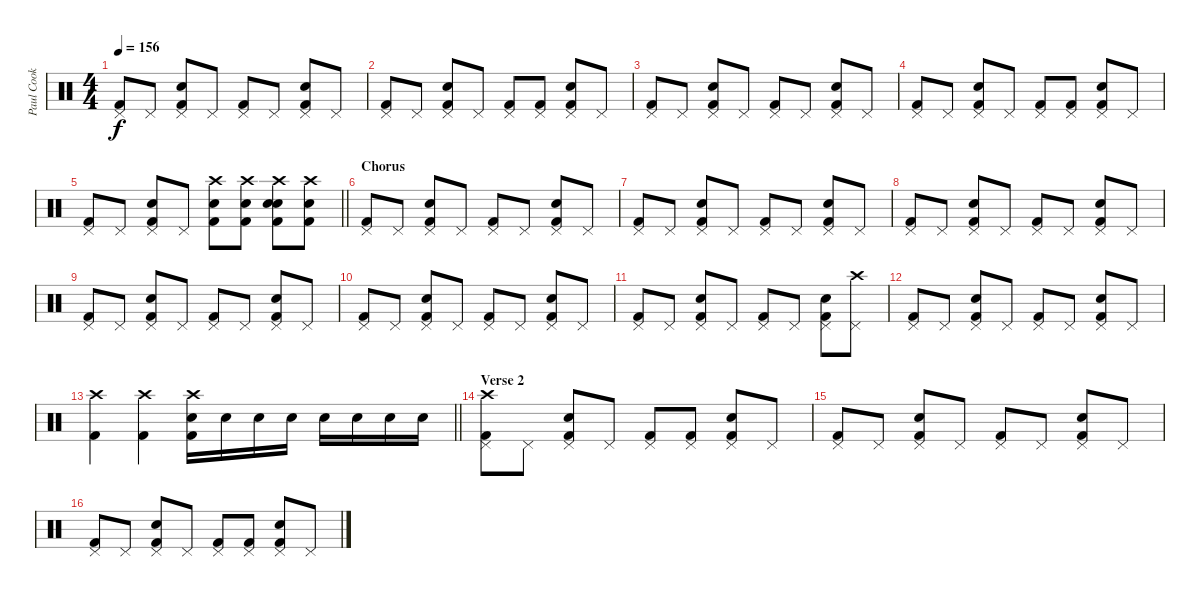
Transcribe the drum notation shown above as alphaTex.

\track ("Paul Cook" "Paul Cook") {instrument percussion}
\staff {score}
\articulation defaults
\ts (4 4)
\tempo 156
\clef neutral
\ks c
("Pedal Hi-Hat (hit)" "Kick (hit) 2").8{dy f} "Pedal Hi-Hat (hit)".8 ("Pedal Hi-Hat (hit)" "Kick (hit) 2" "Snare (hit) 2").8 "Pedal Hi-Hat (hit)".8 ("Pedal Hi-Hat (hit)" "Kick (hit) 2").8 "Pedal Hi-Hat (hit)".8 ("Pedal Hi-Hat (hit)" "Kick (hit) 2" "Snare (hit) 2").8 "Pedal Hi-Hat (hit)".8 |
("Pedal Hi-Hat (hit)" "Kick (hit) 2").8 "Pedal Hi-Hat (hit)".8 ("Pedal Hi-Hat (hit)" "Kick (hit) 2" "Snare (hit) 2").8 "Pedal Hi-Hat (hit)".8 ("Pedal Hi-Hat (hit)" "Kick (hit) 2").8 ("Pedal Hi-Hat (hit)" "Kick (hit) 2").8 ("Pedal Hi-Hat (hit)" "Kick (hit) 2" "Snare (hit) 2").8 "Pedal Hi-Hat (hit)".8 |
("Pedal Hi-Hat (hit)" "Kick (hit) 2").8 "Pedal Hi-Hat (hit)".8 ("Pedal Hi-Hat (hit)" "Kick (hit) 2" "Snare (hit) 2").8 "Pedal Hi-Hat (hit)".8 ("Pedal Hi-Hat (hit)" "Kick (hit) 2").8 "Pedal Hi-Hat (hit)".8 ("Pedal Hi-Hat (hit)" "Kick (hit) 2" "Snare (hit) 2").8 "Pedal Hi-Hat (hit)".8 |
("Pedal Hi-Hat (hit)" "Kick (hit) 2").8 "Pedal Hi-Hat (hit)".8 ("Pedal Hi-Hat (hit)" "Kick (hit) 2" "Snare (hit) 2").8 "Pedal Hi-Hat (hit)".8 ("Pedal Hi-Hat (hit)" "Kick (hit) 2").8 ("Pedal Hi-Hat (hit)" "Kick (hit) 2").8 ("Pedal Hi-Hat (hit)" "Kick (hit) 2" "Snare (hit) 2").8 "Pedal Hi-Hat (hit)".8 |
\barLineRight lightlight
("Pedal Hi-Hat (hit)" "Kick (hit) 2").8 "Pedal Hi-Hat (hit)".8 ("Pedal Hi-Hat (hit)" "Kick (hit) 2" "Snare (hit) 2").8 "Pedal Hi-Hat (hit)".8 ("Kick (hit) 2" "Crash high (hit)" "Snare (hit) 2").8 ("Kick (hit) 2" "Crash high (hit)" "Snare (hit) 2").8 ("Kick (hit) 2" "Snare (hit) 2" "Crash high (hit)" "Snare (hit) 2").8 ("Kick (hit) 2" "Crash high (hit)" "Snare (hit) 2").8 |
\section ("" "Chorus")
("Pedal Hi-Hat (hit)" "Kick (hit) 2").8 "Pedal Hi-Hat (hit)".8 ("Pedal Hi-Hat (hit)" "Kick (hit) 2" "Snare (hit) 2").8 "Pedal Hi-Hat (hit)".8 ("Pedal Hi-Hat (hit)" "Kick (hit) 2").8 "Pedal Hi-Hat (hit)".8 ("Pedal Hi-Hat (hit)" "Kick (hit) 2" "Snare (hit) 2").8 "Pedal Hi-Hat (hit)".8 |
("Pedal Hi-Hat (hit)" "Kick (hit) 2").8 "Pedal Hi-Hat (hit)".8 ("Pedal Hi-Hat (hit)" "Kick (hit) 2" "Snare (hit) 2").8 "Pedal Hi-Hat (hit)".8 ("Pedal Hi-Hat (hit)" "Kick (hit) 2").8 "Pedal Hi-Hat (hit)".8 ("Pedal Hi-Hat (hit)" "Kick (hit) 2" "Snare (hit) 2").8 "Pedal Hi-Hat (hit)".8 |
("Pedal Hi-Hat (hit)" "Kick (hit) 2").8 "Pedal Hi-Hat (hit)".8 ("Pedal Hi-Hat (hit)" "Kick (hit) 2" "Snare (hit) 2").8 "Pedal Hi-Hat (hit)".8 ("Pedal Hi-Hat (hit)" "Kick (hit) 2").8 "Pedal Hi-Hat (hit)".8 ("Pedal Hi-Hat (hit)" "Kick (hit) 2" "Snare (hit) 2").8 "Pedal Hi-Hat (hit)".8 |
("Pedal Hi-Hat (hit)" "Kick (hit) 2").8 "Pedal Hi-Hat (hit)".8 ("Pedal Hi-Hat (hit)" "Kick (hit) 2" "Snare (hit) 2").8 "Pedal Hi-Hat (hit)".8 ("Pedal Hi-Hat (hit)" "Kick (hit) 2").8 "Pedal Hi-Hat (hit)".8 ("Pedal Hi-Hat (hit)" "Kick (hit) 2" "Snare (hit) 2").8 "Pedal Hi-Hat (hit)".8 |
("Pedal Hi-Hat (hit)" "Kick (hit) 2").8 "Pedal Hi-Hat (hit)".8 ("Pedal Hi-Hat (hit)" "Kick (hit) 2" "Snare (hit) 2").8 "Pedal Hi-Hat (hit)".8 ("Pedal Hi-Hat (hit)" "Kick (hit) 2").8 "Pedal Hi-Hat (hit)".8 ("Pedal Hi-Hat (hit)" "Kick (hit) 2" "Snare (hit) 2").8 "Pedal Hi-Hat (hit)".8 |
("Pedal Hi-Hat (hit)" "Kick (hit) 2").8 "Pedal Hi-Hat (hit)".8 ("Pedal Hi-Hat (hit)" "Kick (hit) 2" "Snare (hit) 2").8 "Pedal Hi-Hat (hit)".8 ("Pedal Hi-Hat (hit)" "Kick (hit) 2").8 "Pedal Hi-Hat (hit)".8 ("Pedal Hi-Hat (hit)" "Kick (hit) 2" "Snare (hit) 2").8 ("Pedal Hi-Hat (hit)" "Crash high (hit)").8 |
("Pedal Hi-Hat (hit)" "Kick (hit) 2").8 "Pedal Hi-Hat (hit)".8 ("Pedal Hi-Hat (hit)" "Kick (hit) 2" "Snare (hit) 2").8 "Pedal Hi-Hat (hit)".8 ("Pedal Hi-Hat (hit)" "Kick (hit) 2").8 "Pedal Hi-Hat (hit)".8 ("Pedal Hi-Hat (hit)" "Kick (hit) 2" "Snare (hit) 2").8 "Pedal Hi-Hat (hit)".8 |
\barLineRight lightlight
("Kick (hit) 2" "Crash high (hit)").4 ("Kick (hit) 2" "Crash high (hit)").4 ("Kick (hit) 2" "Crash high (hit)" "Snare (hit) 2").16 "Snare (hit) 2".16 "Snare (hit) 2".16 "Snare (hit) 2".16 "Electric Snare (hit)".16 "Electric Snare (hit)".16 "Electric Snare (hit)".16 "Electric Snare (hit)".16 |
\section ("" "Verse 2")
("Pedal Hi-Hat (hit)" "Kick (hit) 2" "Crash high (hit)").8 "Pedal Hi-Hat (hit)".8 ("Pedal Hi-Hat (hit)" "Kick (hit) 2" "Snare (hit) 2").8 "Pedal Hi-Hat (hit)".8 ("Pedal Hi-Hat (hit)" "Kick (hit) 2").8 ("Pedal Hi-Hat (hit)" "Kick (hit) 2").8 ("Pedal Hi-Hat (hit)" "Kick (hit) 2" "Snare (hit) 2").8 "Pedal Hi-Hat (hit)".8 |
("Pedal Hi-Hat (hit)" "Kick (hit) 2").8 "Pedal Hi-Hat (hit)".8 ("Pedal Hi-Hat (hit)" "Kick (hit) 2" "Snare (hit) 2").8 "Pedal Hi-Hat (hit)".8 ("Pedal Hi-Hat (hit)" "Kick (hit) 2").8 "Pedal Hi-Hat (hit)".8 ("Pedal Hi-Hat (hit)" "Kick (hit) 2" "Snare (hit) 2").8 "Pedal Hi-Hat (hit)".8 |
("Pedal Hi-Hat (hit)" "Kick (hit) 2").8 "Pedal Hi-Hat (hit)".8 ("Pedal Hi-Hat (hit)" "Kick (hit) 2" "Snare (hit) 2").8 "Pedal Hi-Hat (hit)".8 ("Pedal Hi-Hat (hit)" "Kick (hit) 2").8 ("Pedal Hi-Hat (hit)" "Kick (hit) 2").8 ("Pedal Hi-Hat (hit)" "Kick (hit) 2" "Snare (hit) 2").8 "Pedal Hi-Hat (hit)".8
